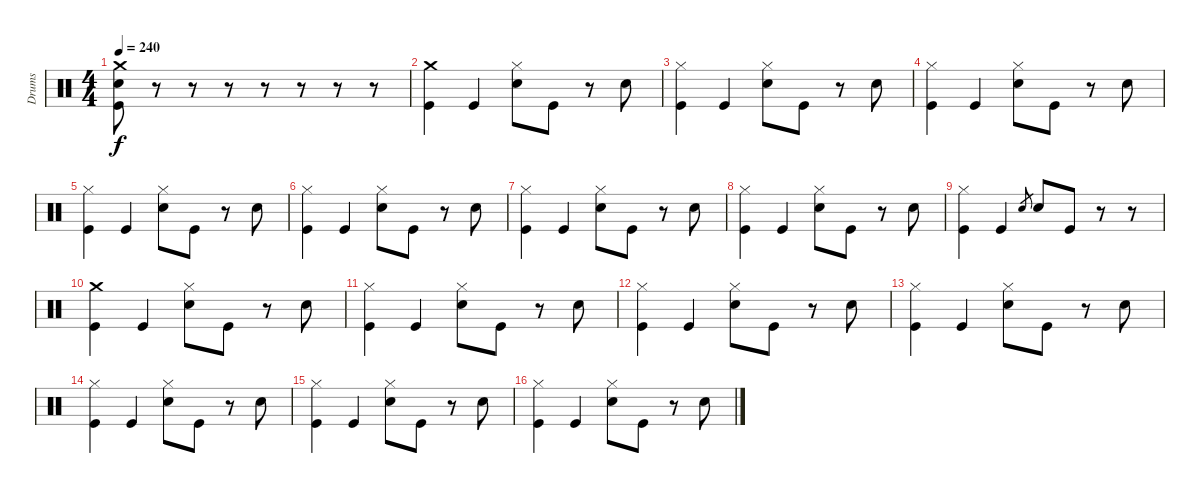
\track ("Drums" "Drums") {instrument percussion}
\staff {score}
\articulation defaults
\ts (4 4)
\tempo 240
\clef neutral
\ks c
("Crash medium (hit)" "Snare (hit) 2" "Kick (hit)").8{dy f} r.8 r.8 r.8 r.8 r.8 r.8 r.8 |
("Crash medium (hit)" "Kick (hit)").4 "Kick (hit)".4 ("Hi-Hat (closed)" "Snare (hit) 2").8 "Kick (hit)".8 r.8 "Snare (hit) 2".8 |
("Hi-Hat (closed)" "Kick (hit)").4 "Kick (hit)".4 ("Hi-Hat (closed)" "Snare (hit) 2").8 "Kick (hit)".8 r.8 "Snare (hit) 2".8 |
("Hi-Hat (closed)" "Kick (hit)").4 "Kick (hit)".4 ("Hi-Hat (closed)" "Snare (hit) 2").8 "Kick (hit)".8 r.8 "Snare (hit) 2".8 |
("Hi-Hat (closed)" "Kick (hit)").4 "Kick (hit)".4 ("Hi-Hat (closed)" "Snare (hit) 2").8 "Kick (hit)".8 r.8 "Snare (hit) 2".8 |
("Hi-Hat (closed)" "Kick (hit)").4 "Kick (hit)".4 ("Hi-Hat (closed)" "Snare (hit) 2").8 "Kick (hit)".8 r.8 "Snare (hit) 2".8 |
("Hi-Hat (closed)" "Kick (hit)").4 "Kick (hit)".4 ("Hi-Hat (closed)" "Snare (hit) 2").8 "Kick (hit)".8 r.8 "Snare (hit) 2".8 |
("Hi-Hat (closed)" "Kick (hit)").4 "Kick (hit)".4 ("Hi-Hat (closed)" "Snare (hit) 2").8 "Kick (hit)".8 r.8 "Snare (hit) 2".8 |
("Hi-Hat (closed)" "Kick (hit)").4 "Kick (hit)".4 "Snare (hit) 2".8{gr} "Snare (hit) 2".8 "Kick (hit)".8 r.8 r.8 |
("Crash medium (hit)" "Kick (hit)").4 "Kick (hit)".4 ("Hi-Hat (closed)" "Snare (hit) 2").8 "Kick (hit)".8 r.8 "Snare (hit) 2".8 |
("Hi-Hat (closed)" "Kick (hit)").4 "Kick (hit)".4 ("Hi-Hat (closed)" "Snare (hit) 2").8 "Kick (hit)".8 r.8 "Snare (hit) 2".8 |
("Hi-Hat (closed)" "Kick (hit)").4 "Kick (hit)".4 ("Hi-Hat (closed)" "Snare (hit) 2").8 "Kick (hit)".8 r.8 "Snare (hit) 2".8 |
("Hi-Hat (closed)" "Kick (hit)").4 "Kick (hit)".4 ("Hi-Hat (closed)" "Snare (hit) 2").8 "Kick (hit)".8 r.8 "Snare (hit) 2".8 |
("Hi-Hat (closed)" "Kick (hit)").4 "Kick (hit)".4 ("Hi-Hat (closed)" "Snare (hit) 2").8 "Kick (hit)".8 r.8 "Snare (hit) 2".8 |
("Hi-Hat (closed)" "Kick (hit)").4 "Kick (hit)".4 ("Hi-Hat (closed)" "Snare (hit) 2").8 "Kick (hit)".8 r.8 "Snare (hit) 2".8 |
("Hi-Hat (closed)" "Kick (hit)").4 "Kick (hit)".4 ("Hi-Hat (closed)" "Snare (hit) 2").8 "Kick (hit)".8 r.8 "Snare (hit) 2".8
